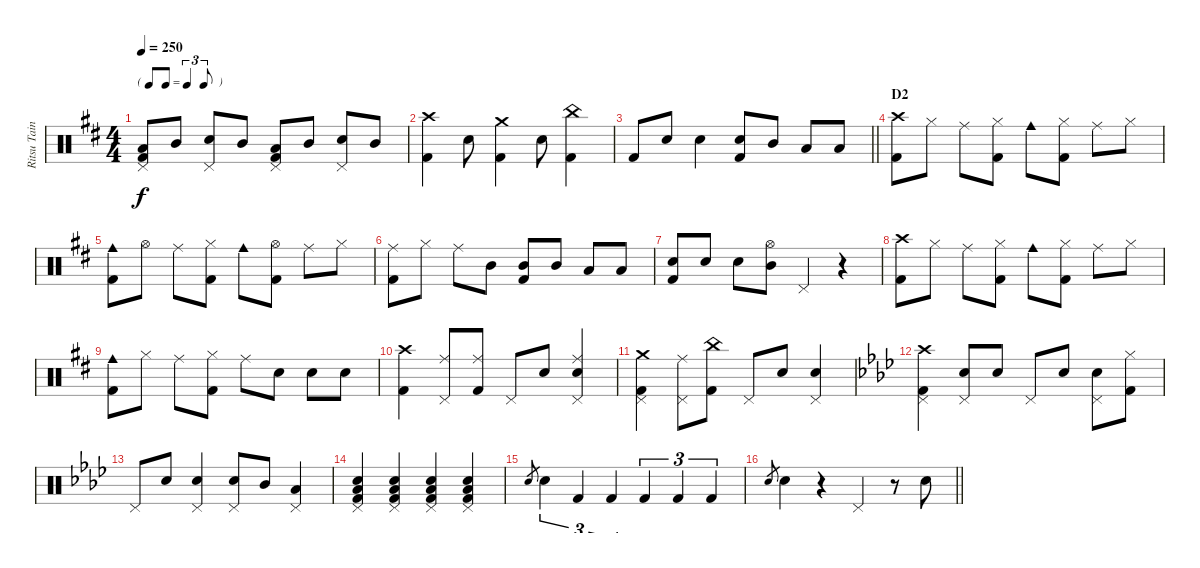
\track ("Ritsu Tainaka" "Ritsu Tain") {instrument percussion}
\staff {score}
\articulation defaults
\ts (4 4)
\tf triplet8th
\tempo 250
\clef neutral
\ks d
("Pedal Hi-Hat (hit)" "Low Floor Tom (hit)" "Kick (hit) 2").8{dy f} "Mid Tom (hit)".8 ("Pedal Hi-Hat (hit)" "Electric Snare (hit)").8 "Mid Tom (hit)".8 ("Pedal Hi-Hat (hit)" "Low Floor Tom (hit)" "Kick (hit) 2").8 "Mid Tom (hit)".8 ("Pedal Hi-Hat (hit)" "Electric Snare (hit)").8 "Mid Tom (hit)".8 |
("Crash high (hit)" "Kick (hit) 2").4 "Electric Snare (hit)".8 ("Crash medium (hit)" "Kick (hit) 2").4 "Electric Snare (hit)".8 ("China (hit)" "Kick (hit) 2").4 |
\barLineRight lightlight "Kick (hit) 2".8 "Electric Snare (hit)".8 "Electric Snare (hit)".4
("Electric Snare (hit)" "Kick (hit) 2").8 "Mid Tom (hit)".8 "Low Floor Tom (hit)".8 "Low Floor Tom (hit)".8 |
\section ("" "D2")
("Crash high (hit)" "Kick (hit) 2").8 "Hi-Hat (closed)".8 "Ride (middle)".8 ("Hi-Hat (closed)" "Kick (hit) 2").8 "Cowbell medium (hit)".8 ("Hi-Hat (closed)" "Kick (hit) 2").8 "Ride (middle)".8 "Hi-Hat (closed)".8 |
("Cowbell medium (hit)" "Kick (hit) 2").8 "Hi-Hat (open)".8 "Ride (middle)".8 ("Hi-Hat (closed)" "Kick (hit) 2").8 "Cowbell medium (hit)".8 ("Hi-Hat (open)" "Kick (hit) 2").8 "Ride (middle)".8 "Hi-Hat (closed)".8 |
("Ride (middle)" "Kick (hit) 2").8 "Hi-Hat (closed)".8 "Ride (middle)".8 "Mid Tom (hit)".8 ("Mid Tom (hit)" "Kick (hit) 2").8 "Mid Tom (hit)".8 "Low Floor Tom (hit)".8 "Low Floor Tom (hit)".8 |
("Electric Snare (hit)" "Kick (hit) 2").8 "Electric Snare (hit)".8 "Electric Snare (hit)".8 ("Hi-Hat (open)" "Mid Tom (hit)").8 "Pedal Hi-Hat (hit)".4 r.4 |
("Crash high (hit)" "Kick (hit) 2").8 "Hi-Hat (closed)".8 "Ride (middle)".8 ("Hi-Hat (closed)" "Kick (hit) 2").8 "Cowbell medium (hit)".8 ("Hi-Hat (closed)" "Kick (hit) 2").8 "Ride (middle)".8 "Hi-Hat (closed)".8 |
("Cowbell medium (hit)" "Kick (hit) 2").8 "Hi-Hat (closed)".8 "Ride (middle)".8 ("Hi-Hat (closed)" "Kick (hit) 2").8 "Ride (middle)".8 "Electric Snare (hit)".8 "Electric Snare (hit)".8 "Electric Snare (hit)".8 |
("Crash high (hit)" "Kick (hit) 2").4 ("Ride (middle)" "Pedal Hi-Hat (hit)").8 ("Ride (middle)" "Kick (hit) 2").8 "Pedal Hi-Hat (hit)".8 "Electric Snare (hit)".8 ("Ride (middle)" "Pedal Hi-Hat (hit)" "Electric Snare (hit)").4 |
("Crash medium (hit)" "Pedal Hi-Hat (hit)" "Kick (hit) 2").4 ("Ride (middle)" "Pedal Hi-Hat (hit)").8 ("China (hit)" "Kick (hit) 2").8 "Pedal Hi-Hat (hit)".8 "Electric Snare (hit)".8 ("Pedal Hi-Hat (hit)" "Electric Snare (hit)").4 |
\ks ab
("Crash high (hit)" "Pedal Hi-Hat (hit)" "Kick (hit) 2").4 ("Pedal Hi-Hat (hit)" "Electric Snare (hit)").8 "Electric Snare (hit)".8 "Pedal Hi-Hat (hit)".8 "Electric Snare (hit)".8 ("Pedal Hi-Hat (hit)" "Electric Snare (hit)").8 ("Hi-Hat (closed)" "Kick (hit) 2").8 |
"Pedal Hi-Hat (hit)".8 "Electric Snare (hit)".8 ("Pedal Hi-Hat (hit)" "Electric Snare (hit)").4 ("Pedal Hi-Hat (hit)" "Electric Snare (hit)").8 "Mid Tom (hit)".8 ("Pedal Hi-Hat (hit)" "Low Floor Tom (hit)").4 |
("Pedal Hi-Hat (hit)" "Electric Snare (hit)" "Low Floor Tom (hit)" "Kick (hit) 2").4 ("Pedal Hi-Hat (hit)" "Electric Snare (hit)" "Low Floor Tom (hit)" "Kick (hit) 2").4 ("Pedal Hi-Hat (hit)" "Electric Snare (hit)" "Low Floor Tom (hit)" "Kick (hit) 2").4 ("Pedal Hi-Hat (hit)" "Electric Snare (hit)" "Low Floor Tom (hit)" "Kick (hit) 2").4 |
"Electric Snare (hit)".8{gr} "Electric Snare (hit)".4{tu (3 2)} "Kick (hit) 2".4{tu (3 2)} "Kick (hit) 2".4{tu (3 2)} "Kick (hit) 2".4{tu (3 2)} "Kick (hit) 2".4{tu (3 2)} "Kick (hit) 2".4{tu (3 2)} |
\barLineRight lightlight "Electric Snare (hit)".8{gr} "Electric Snare (hit)".4
r.4 "Pedal Hi-Hat (hit)".4 r.8 "Electric Snare (hit)".8
